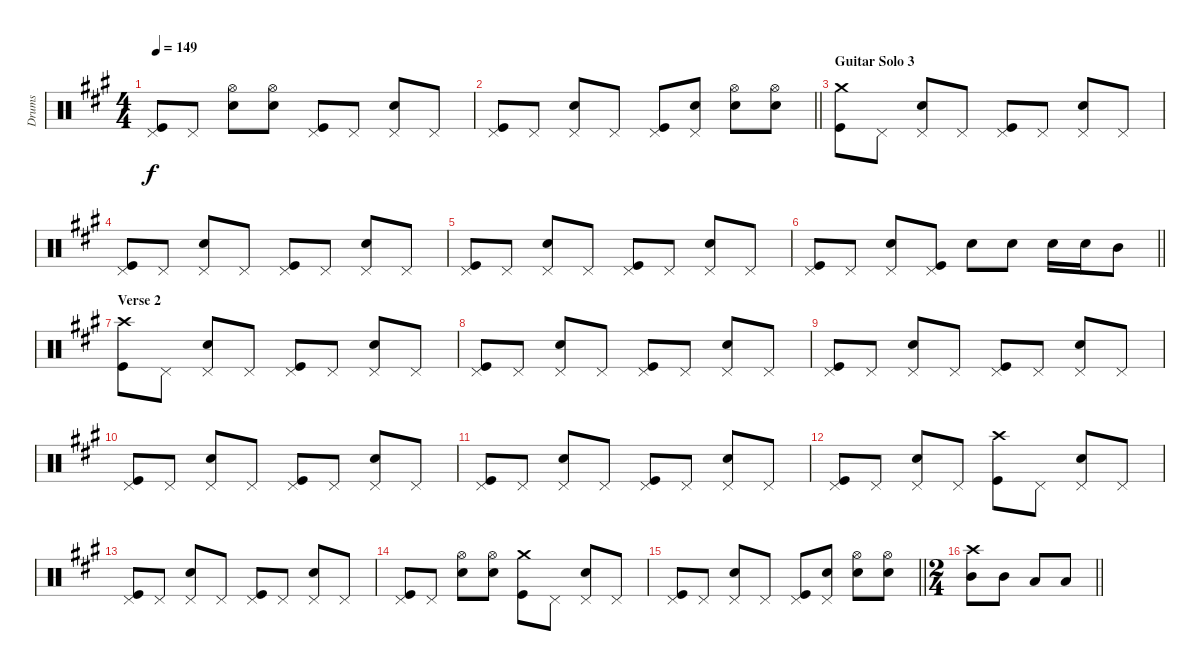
\track ("Drums" "Drums") {instrument percussion}
\staff {score}
\articulation defaults
\ts (4 4)
\tempo 149
\clef neutral
\ks f#minor
("Pedal Hi-Hat (hit)" "Kick (hit)").8{dy f} "Pedal Hi-Hat (hit)".8 ("Hi-Hat (open)" "Snare (hit) 2").8 ("Hi-Hat (open)" "Snare (hit) 2").8 ("Pedal Hi-Hat (hit)" "Kick (hit)").8 "Pedal Hi-Hat (hit)".8 ("Pedal Hi-Hat (hit)" "Snare (hit) 2").8 "Pedal Hi-Hat (hit)".8 |
\barLineRight lightlight
("Pedal Hi-Hat (hit)" "Kick (hit)").8 "Pedal Hi-Hat (hit)".8 ("Pedal Hi-Hat (hit)" "Snare (hit) 2").8 "Pedal Hi-Hat (hit)".8 ("Pedal Hi-Hat (hit)" "Kick (hit)").8 ("Pedal Hi-Hat (hit)" "Snare (hit) 2").8 ("Hi-Hat (open)" "Snare (hit) 2").8 ("Hi-Hat (open)" "Snare (hit) 2").8 |
\section ("" "Guitar Solo 3")
("Crash medium (hit)" "Kick (hit)").8 "Pedal Hi-Hat (hit)".8 ("Pedal Hi-Hat (hit)" "Snare (hit) 2").8 "Pedal Hi-Hat (hit)".8 ("Pedal Hi-Hat (hit)" "Kick (hit)").8 "Pedal Hi-Hat (hit)".8 ("Pedal Hi-Hat (hit)" "Snare (hit) 2").8 "Pedal Hi-Hat (hit)".8 |
("Pedal Hi-Hat (hit)" "Kick (hit)").8 "Pedal Hi-Hat (hit)".8 ("Pedal Hi-Hat (hit)" "Snare (hit) 2").8 "Pedal Hi-Hat (hit)".8 ("Pedal Hi-Hat (hit)" "Kick (hit)").8 "Pedal Hi-Hat (hit)".8 ("Pedal Hi-Hat (hit)" "Snare (hit) 2").8 "Pedal Hi-Hat (hit)".8 |
("Pedal Hi-Hat (hit)" "Kick (hit)").8 "Pedal Hi-Hat (hit)".8 ("Pedal Hi-Hat (hit)" "Snare (hit) 2").8 "Pedal Hi-Hat (hit)".8 ("Pedal Hi-Hat (hit)" "Kick (hit)").8 "Pedal Hi-Hat (hit)".8 ("Pedal Hi-Hat (hit)" "Snare (hit) 2").8 "Pedal Hi-Hat (hit)".8 |
\barLineRight lightlight
("Pedal Hi-Hat (hit)" "Kick (hit)").8 "Pedal Hi-Hat (hit)".8 ("Pedal Hi-Hat (hit)" "Snare (hit) 2").8 ("Pedal Hi-Hat (hit)" "Kick (hit)").8 "Snare (hit) 2".8 "Snare (hit) 2".8 "Snare (hit) 2".16 "Snare (hit) 2".16 "Mid Tom (hit)".8 |
\section ("" "Verse 2")
("Crash high (hit)" "Kick (hit)").8 "Pedal Hi-Hat (hit)".8 ("Pedal Hi-Hat (hit)" "Snare (hit) 2").8 "Pedal Hi-Hat (hit)".8 ("Pedal Hi-Hat (hit)" "Kick (hit)").8 "Pedal Hi-Hat (hit)".8 ("Pedal Hi-Hat (hit)" "Snare (hit) 2").8 "Pedal Hi-Hat (hit)".8 |
("Pedal Hi-Hat (hit)" "Kick (hit)").8 "Pedal Hi-Hat (hit)".8 ("Pedal Hi-Hat (hit)" "Snare (hit) 2").8 "Pedal Hi-Hat (hit)".8 ("Pedal Hi-Hat (hit)" "Kick (hit)").8 "Pedal Hi-Hat (hit)".8 ("Pedal Hi-Hat (hit)" "Snare (hit) 2").8 "Pedal Hi-Hat (hit)".8 |
("Pedal Hi-Hat (hit)" "Kick (hit)").8 "Pedal Hi-Hat (hit)".8 ("Pedal Hi-Hat (hit)" "Snare (hit) 2").8 "Pedal Hi-Hat (hit)".8 ("Pedal Hi-Hat (hit)" "Kick (hit)").8 "Pedal Hi-Hat (hit)".8 ("Pedal Hi-Hat (hit)" "Snare (hit) 2").8 "Pedal Hi-Hat (hit)".8 |
("Pedal Hi-Hat (hit)" "Kick (hit)").8 "Pedal Hi-Hat (hit)".8 ("Pedal Hi-Hat (hit)" "Snare (hit) 2").8 "Pedal Hi-Hat (hit)".8 ("Pedal Hi-Hat (hit)" "Kick (hit)").8 "Pedal Hi-Hat (hit)".8 ("Pedal Hi-Hat (hit)" "Snare (hit) 2").8 "Pedal Hi-Hat (hit)".8 |
("Pedal Hi-Hat (hit)" "Kick (hit)").8 "Pedal Hi-Hat (hit)".8 ("Pedal Hi-Hat (hit)" "Snare (hit) 2").8 "Pedal Hi-Hat (hit)".8 ("Pedal Hi-Hat (hit)" "Kick (hit)").8 "Pedal Hi-Hat (hit)".8 ("Pedal Hi-Hat (hit)" "Snare (hit) 2").8 "Pedal Hi-Hat (hit)".8 |
("Pedal Hi-Hat (hit)" "Kick (hit)").8 "Pedal Hi-Hat (hit)".8 ("Pedal Hi-Hat (hit)" "Snare (hit) 2").8 "Pedal Hi-Hat (hit)".8 ("Crash high (hit)" "Kick (hit)").8 "Pedal Hi-Hat (hit)".8 ("Pedal Hi-Hat (hit)" "Snare (hit) 2").8 "Pedal Hi-Hat (hit)".8 |
("Pedal Hi-Hat (hit)" "Kick (hit)").8 "Pedal Hi-Hat (hit)".8 ("Pedal Hi-Hat (hit)" "Snare (hit) 2").8 "Pedal Hi-Hat (hit)".8 ("Pedal Hi-Hat (hit)" "Kick (hit)").8 "Pedal Hi-Hat (hit)".8 ("Pedal Hi-Hat (hit)" "Snare (hit) 2").8 "Pedal Hi-Hat (hit)".8 |
("Pedal Hi-Hat (hit)" "Kick (hit)").8 "Pedal Hi-Hat (hit)".8 ("Hi-Hat (open)" "Snare (hit) 2").8 ("Hi-Hat (open)" "Snare (hit) 2").8 ("Crash medium (hit)" "Kick (hit)").8 "Pedal Hi-Hat (hit)".8 ("Pedal Hi-Hat (hit)" "Snare (hit) 2").8 "Pedal Hi-Hat (hit)".8 |
\barLineRight lightlight
("Pedal Hi-Hat (hit)" "Kick (hit)").8 "Pedal Hi-Hat (hit)".8 ("Pedal Hi-Hat (hit)" "Snare (hit) 2").8 "Pedal Hi-Hat (hit)".8 ("Pedal Hi-Hat (hit)" "Kick (hit)").8 ("Pedal Hi-Hat (hit)" "Snare (hit) 2").8 ("Hi-Hat (open)" "Snare (hit) 2").8 ("Hi-Hat (open)" "Snare (hit) 2").8 |
\ts (2 4)
\barLineRight lightlight
("Crash high (hit)" "Mid Tom (hit)").8 "Mid Tom (hit)".8 "Low Tom (hit)".8 "Low Tom (hit)".8
